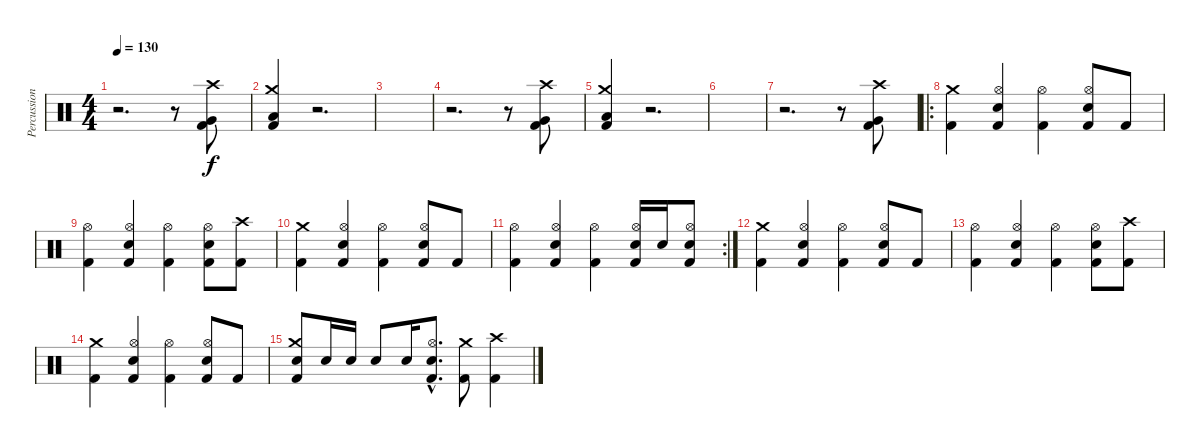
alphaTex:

\track ("Percussion" "Percussion") {instrument percussion}
\staff {score}
\articulation defaults
\ts (4 4)
\tempo 130
\clef neutral
\ks c
r.2{d dy ff} r.8 ("Crash high (hit)" "Very Low Tom (hit)" "Kick (hit) 2").8{dy f} |
("Crash medium (hit)" "Low Floor Tom (hit)" "Kick (hit) 2").4 r.2{d} |
|
r.2{d} r.8 ("Crash high (hit)" "Very Low Tom (hit)" "Kick (hit) 2").8 |
("Crash medium (hit)" "Low Floor Tom (hit)" "Kick (hit) 2").4 r.2{d} |
|
r.2{d} r.8 ("Crash high (hit)" "Very Low Tom (hit)" "Kick (hit) 2").8 |
\ro
("Crash medium (hit)" "Kick (hit) 2").4 ("Hi-Hat (open)" "Electric Snare (hit)" "Kick (hit) 2").4 ("Hi-Hat (open)" "Kick (hit) 2").4 ("Hi-Hat (open)" "Electric Snare (hit)" "Kick (hit) 2").8 "Kick (hit) 2".8 |
("Hi-Hat (open)" "Kick (hit) 2").4 ("Hi-Hat (open)" "Electric Snare (hit)" "Kick (hit) 2").4 ("Hi-Hat (open)" "Kick (hit) 2").4 ("Hi-Hat (open)" "Electric Snare (hit)" "Kick (hit) 2").8 ("Crash high (hit)" "Kick (hit) 2").8 |
("Crash medium (hit)" "Kick (hit) 2").4 ("Hi-Hat (open)" "Electric Snare (hit)" "Kick (hit) 2").4 ("Hi-Hat (open)" "Kick (hit) 2").4 ("Hi-Hat (open)" "Electric Snare (hit)" "Kick (hit) 2").8 "Kick (hit) 2".8 |
\rc 2
("Hi-Hat (open)" "Kick (hit) 2").4 ("Hi-Hat (open)" "Electric Snare (hit)" "Kick (hit) 2").4 ("Hi-Hat (open)" "Kick (hit) 2").4 ("Hi-Hat (open)" "Electric Snare (hit)" "Kick (hit) 2").16 "Electric Snare (hit)".16 ("Hi-Hat (open)" "Electric Snare (hit)" "Kick (hit) 2").8 |
("Crash medium (hit)" "Kick (hit) 2").4 ("Hi-Hat (open)" "Electric Snare (hit)" "Kick (hit) 2").4 ("Hi-Hat (open)" "Kick (hit) 2").4 ("Hi-Hat (open)" "Electric Snare (hit)" "Kick (hit) 2").8 "Kick (hit) 2".8 |
("Hi-Hat (open)" "Kick (hit) 2").4 ("Hi-Hat (open)" "Electric Snare (hit)" "Kick (hit) 2").4 ("Hi-Hat (open)" "Kick (hit) 2").4 ("Hi-Hat (open)" "Electric Snare (hit)" "Kick (hit) 2").8 ("Crash high (hit)" "Kick (hit) 2").8 |
("Crash medium (hit)" "Kick (hit) 2").4 ("Hi-Hat (open)" "Electric Snare (hit)" "Kick (hit) 2").4 ("Hi-Hat (open)" "Kick (hit) 2").4 ("Hi-Hat (open)" "Electric Snare (hit)" "Kick (hit) 2").8 "Kick (hit) 2".8 |
("Crash medium (hit)" "Electric Snare (hit)" "Kick (hit) 2").8 "Electric Snare (hit)".16 "Electric Snare (hit)".16 "Electric Snare (hit)".8 "Electric Snare (hit)".16 ("Hi-Hat (open)"{hac} "Electric Snare (hit)"{hac} "Kick (hit) 2"{hac}).8{d} ("Crash medium (hit)" "Kick (hit) 2").8 ("Crash high (hit)" "Kick (hit) 2").4
